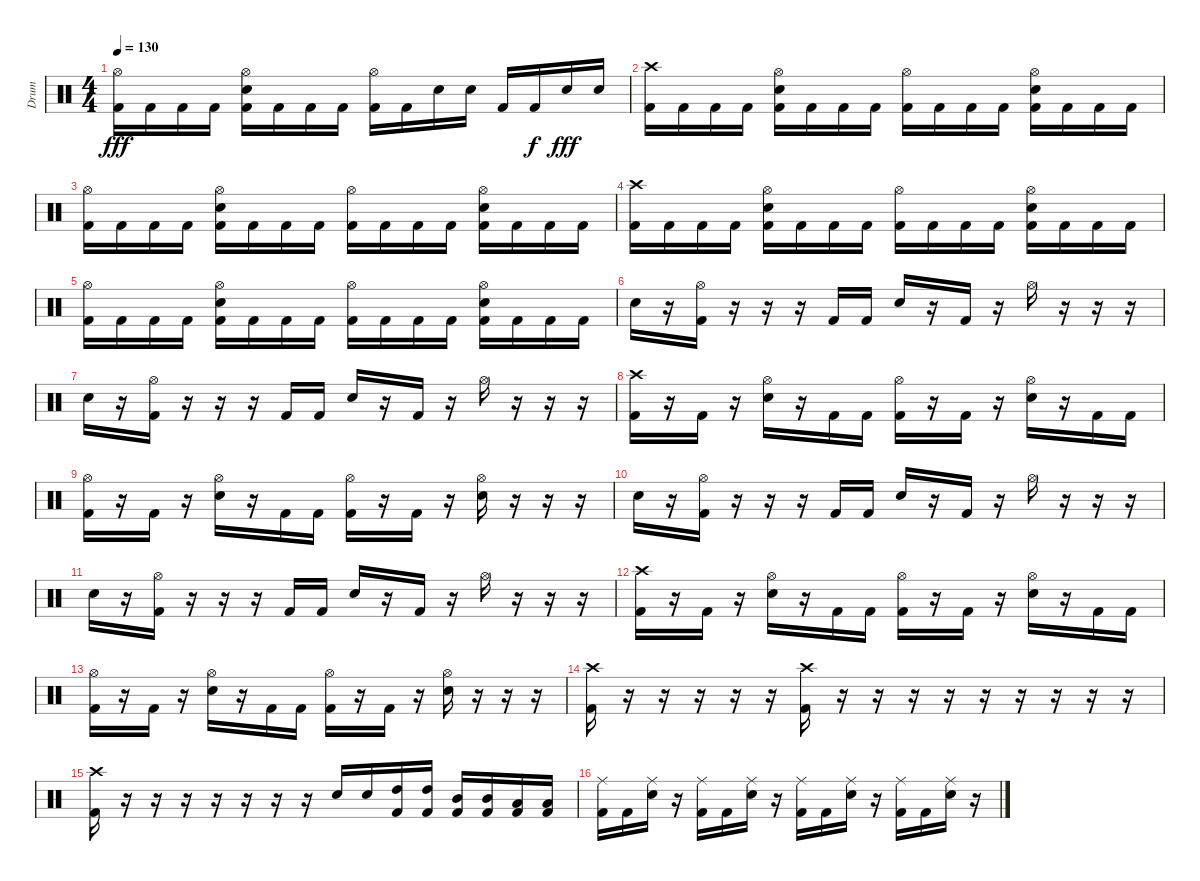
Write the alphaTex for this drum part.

\track ("Drum" "Drum") {instrument percussion}
\staff {score}
\articulation defaults
\ts (4 4)
\tempo 130
\clef neutral
\ks c
("Hi-Hat (open)" "Kick (hit) 2").16{dy fff} "Kick (hit) 2".16 "Kick (hit) 2".16 "Kick (hit) 2".16 ("Hi-Hat (open)" "Snare (hit) 2" "Kick (hit) 2").16 "Kick (hit) 2".16 "Kick (hit) 2".16 "Kick (hit) 2".16 ("Hi-Hat (open)" "Kick (hit) 2").16 "Kick (hit) 2".16 "Snare (hit) 2".16 "Snare (hit) 2".16 "Kick (hit) 2".16 "Kick (hit) 2".16{dy f} "Snare (hit) 2".16{dy fff} "Snare (hit) 2".16 |
("Crash high (hit)" "Kick (hit) 2").16 "Kick (hit) 2".16 "Kick (hit) 2".16 "Kick (hit) 2".16 ("Hi-Hat (open)" "Snare (hit) 2" "Kick (hit) 2").16 "Kick (hit) 2".16 "Kick (hit) 2".16 "Kick (hit) 2".16 ("Hi-Hat (open)" "Kick (hit) 2").16 "Kick (hit) 2".16 "Kick (hit) 2".16 "Kick (hit) 2".16 ("Hi-Hat (open)" "Snare (hit) 2" "Kick (hit) 2").16 "Kick (hit) 2".16 "Kick (hit) 2".16 "Kick (hit) 2".16 |
("Hi-Hat (open)" "Kick (hit) 2").16 "Kick (hit) 2".16 "Kick (hit) 2".16 "Kick (hit) 2".16 ("Hi-Hat (open)" "Snare (hit) 2" "Kick (hit) 2").16 "Kick (hit) 2".16 "Kick (hit) 2".16 "Kick (hit) 2".16 ("Hi-Hat (open)" "Kick (hit) 2").16 "Kick (hit) 2".16 "Kick (hit) 2".16 "Kick (hit) 2".16 ("Hi-Hat (open)" "Snare (hit) 2" "Kick (hit) 2").16 "Kick (hit) 2".16 "Kick (hit) 2".16 "Kick (hit) 2".16 |
("Crash high (hit)" "Kick (hit) 2").16 "Kick (hit) 2".16 "Kick (hit) 2".16 "Kick (hit) 2".16 ("Hi-Hat (open)" "Snare (hit) 2" "Kick (hit) 2").16 "Kick (hit) 2".16 "Kick (hit) 2".16 "Kick (hit) 2".16 ("Hi-Hat (open)" "Kick (hit) 2").16 "Kick (hit) 2".16 "Kick (hit) 2".16 "Kick (hit) 2".16 ("Hi-Hat (open)" "Snare (hit) 2" "Kick (hit) 2").16 "Kick (hit) 2".16 "Kick (hit) 2".16 "Kick (hit) 2".16 |
("Hi-Hat (open)" "Kick (hit) 2").16 "Kick (hit) 2".16 "Kick (hit) 2".16 "Kick (hit) 2".16 ("Hi-Hat (open)" "Snare (hit) 2" "Kick (hit) 2").16 "Kick (hit) 2".16 "Kick (hit) 2".16 "Kick (hit) 2".16 ("Hi-Hat (open)" "Kick (hit) 2").16 "Kick (hit) 2".16 "Kick (hit) 2".16 "Kick (hit) 2".16 ("Hi-Hat (open)" "Snare (hit) 2" "Kick (hit) 2").16 "Kick (hit) 2".16 "Kick (hit) 2".16 "Kick (hit) 2".16 |
"Snare (hit) 2".16 r.16 ("Hi-Hat (open)" "Kick (hit) 2").16 r.16 r.16 r.16 "Kick (hit) 2".16 "Kick (hit) 2".16 "Snare (hit) 2".16 r.16 "Kick (hit) 2".16 r.16 "Hi-Hat (open)".16 r.16 r.16 r.16 |
"Snare (hit) 2".16 r.16 ("Hi-Hat (open)" "Kick (hit) 2").16 r.16 r.16 r.16 "Kick (hit) 2".16 "Kick (hit) 2".16 "Snare (hit) 2".16 r.16 "Kick (hit) 2".16 r.16 "Hi-Hat (open)".16 r.16 r.16 r.16 |
("Crash high (hit)" "Kick (hit) 2").16 r.16 "Kick (hit) 2".16 r.16 ("Hi-Hat (open)" "Snare (hit) 2").16 r.16 "Kick (hit) 2".16 "Kick (hit) 2".16 ("Hi-Hat (open)" "Kick (hit) 2").16 r.16 "Kick (hit) 2".16 r.16 ("Hi-Hat (open)" "Snare (hit) 2").16 r.16 "Kick (hit) 2".16 "Kick (hit) 2".16 |
("Hi-Hat (open)" "Kick (hit) 2").16 r.16 "Kick (hit) 2".16 r.16 ("Hi-Hat (open)" "Snare (hit) 2").16 r.16 "Kick (hit) 2".16 "Kick (hit) 2".16 ("Hi-Hat (open)" "Kick (hit) 2").16 r.16 "Kick (hit) 2".16 r.16 ("Hi-Hat (open)" "Snare (hit) 2").16 r.16 r.16 r.16 |
"Snare (hit) 2".16 r.16 ("Hi-Hat (open)" "Kick (hit) 2").16 r.16 r.16 r.16 "Kick (hit) 2".16 "Kick (hit) 2".16 "Snare (hit) 2".16 r.16 "Kick (hit) 2".16 r.16 "Hi-Hat (open)".16 r.16 r.16 r.16 |
"Snare (hit) 2".16 r.16 ("Hi-Hat (open)" "Kick (hit) 2").16 r.16 r.16 r.16 "Kick (hit) 2".16 "Kick (hit) 2".16 "Snare (hit) 2".16 r.16 "Kick (hit) 2".16 r.16 "Hi-Hat (open)".16 r.16 r.16 r.16 |
("Crash high (hit)" "Kick (hit) 2").16 r.16 "Kick (hit) 2".16 r.16 ("Hi-Hat (open)" "Snare (hit) 2").16 r.16 "Kick (hit) 2".16 "Kick (hit) 2".16 ("Hi-Hat (open)" "Kick (hit) 2").16 r.16 "Kick (hit) 2".16 r.16 ("Hi-Hat (open)" "Snare (hit) 2").16 r.16 "Kick (hit) 2".16 "Kick (hit) 2".16 |
("Hi-Hat (open)" "Kick (hit) 2").16 r.16 "Kick (hit) 2".16 r.16 ("Hi-Hat (open)" "Snare (hit) 2").16 r.16 "Kick (hit) 2".16 "Kick (hit) 2".16 ("Hi-Hat (open)" "Kick (hit) 2").16 r.16 "Kick (hit) 2".16 r.16 ("Hi-Hat (open)" "Snare (hit) 2").16 r.16 r.16 r.16 |
("Crash high (hit)" "Kick (hit) 2").16 r.16 r.16 r.16 r.16 r.16 ("Crash high (hit)" "Kick (hit) 2").16 r.16 r.16 r.16 r.16 r.16 r.16 r.16 r.16 r.16 |
("Crash high (hit)" "Kick (hit) 2").16 r.16 r.16 r.16 r.16 r.16 r.16 r.16 "Snare (hit) 2".16 "Snare (hit) 2".16 ("High Tom (hit)" "Kick (hit) 2").16 ("High Tom (hit)" "Kick (hit) 2").16 ("Mid Tom (hit)" "Kick (hit) 2").16 ("Mid Tom (hit)" "Kick (hit) 2").16 ("Low Tom (hit)" "Kick (hit) 2").16 ("Low Tom (hit)" "Kick (hit) 2").16 |
("Ride (middle)" "Kick (hit) 2").16 "Kick (hit) 2".16 ("Ride (middle)" "Snare (hit) 2").16 r.16 ("Ride (middle)" "Kick (hit) 2").16 "Kick (hit) 2".16 ("Ride (middle)" "Snare (hit) 2").16 r.16 ("Ride (middle)" "Kick (hit) 2").16 "Kick (hit) 2".16 ("Ride (middle)" "Snare (hit) 2").16 r.16 ("Ride (middle)" "Kick (hit) 2").16 "Kick (hit) 2".16 ("Ride (middle)" "Snare (hit) 2").16 r.16
